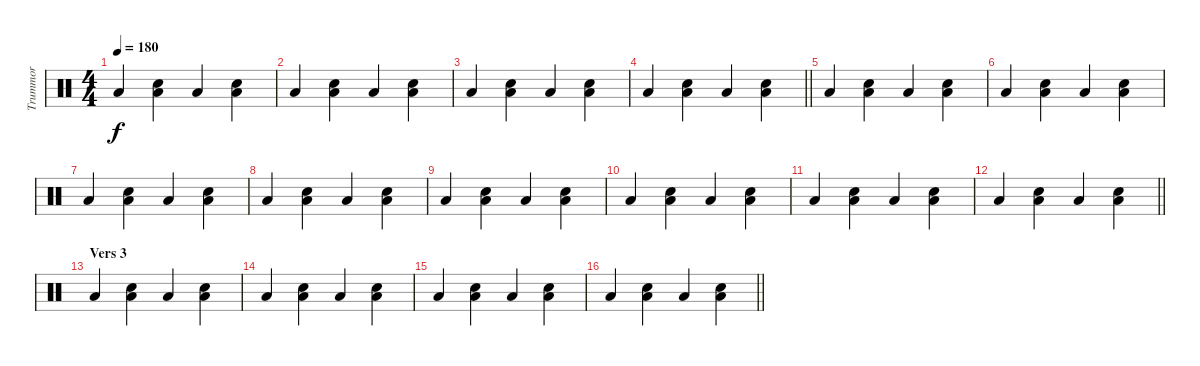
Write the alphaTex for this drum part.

\track ("Trummor" "Trummor") {instrument percussion}
\staff {score}
\articulation defaults
\ts (4 4)
\tempo 180
\clef neutral
\ks c "Low Tom (hit)".4{dy f}
("Low Tom (hit)" "Snare (hit) 2").4 "Low Tom (hit)".4 ("Low Tom (hit)" "Snare (hit) 2").4 |
"Low Tom (hit)".4 ("Low Tom (hit)" "Snare (hit) 2").4 "Low Tom (hit)".4 ("Low Tom (hit)" "Snare (hit) 2").4 |
"Low Tom (hit)".4 ("Low Tom (hit)" "Snare (hit) 2").4 "Low Tom (hit)".4 ("Low Tom (hit)" "Snare (hit) 2").4 |
\barLineRight lightlight "Low Tom (hit)".4
("Low Tom (hit)" "Snare (hit) 2").4 "Low Tom (hit)".4 ("Low Tom (hit)" "Snare (hit) 2").4 |
"Low Tom (hit)".4 ("Low Tom (hit)" "Snare (hit) 2").4 "Low Tom (hit)".4 ("Low Tom (hit)" "Snare (hit) 2").4 |
"Low Tom (hit)".4 ("Low Tom (hit)" "Snare (hit) 2").4 "Low Tom (hit)".4 ("Low Tom (hit)" "Snare (hit) 2").4 |
"Low Tom (hit)".4 ("Low Tom (hit)" "Snare (hit) 2").4 "Low Tom (hit)".4 ("Low Tom (hit)" "Snare (hit) 2").4 |
"Low Tom (hit)".4 ("Low Tom (hit)" "Snare (hit) 2").4 "Low Tom (hit)".4 ("Low Tom (hit)" "Snare (hit) 2").4 |
"Low Tom (hit)".4 ("Low Tom (hit)" "Snare (hit) 2").4 "Low Tom (hit)".4 ("Low Tom (hit)" "Snare (hit) 2").4 |
"Low Tom (hit)".4 ("Low Tom (hit)" "Snare (hit) 2").4 "Low Tom (hit)".4 ("Low Tom (hit)" "Snare (hit) 2").4 |
"Low Tom (hit)".4 ("Low Tom (hit)" "Snare (hit) 2").4 "Low Tom (hit)".4 ("Low Tom (hit)" "Snare (hit) 2").4 |
\barLineRight lightlight "Low Tom (hit)".4
("Low Tom (hit)" "Snare (hit) 2").4 "Low Tom (hit)".4 ("Low Tom (hit)" "Snare (hit) 2").4 |
\section ("" "Vers 3")
"Low Tom (hit)".4 ("Low Tom (hit)" "Snare (hit) 2").4 "Low Tom (hit)".4 ("Low Tom (hit)" "Snare (hit) 2").4 |
"Low Tom (hit)".4 ("Low Tom (hit)" "Snare (hit) 2").4 "Low Tom (hit)".4 ("Low Tom (hit)" "Snare (hit) 2").4 |
"Low Tom (hit)".4 ("Low Tom (hit)" "Snare (hit) 2").4 "Low Tom (hit)".4 ("Low Tom (hit)" "Snare (hit) 2").4 |
\barLineRight lightlight "Low Tom (hit)".4
("Low Tom (hit)" "Snare (hit) 2").4 "Low Tom (hit)".4 ("Low Tom (hit)" "Snare (hit) 2").4
